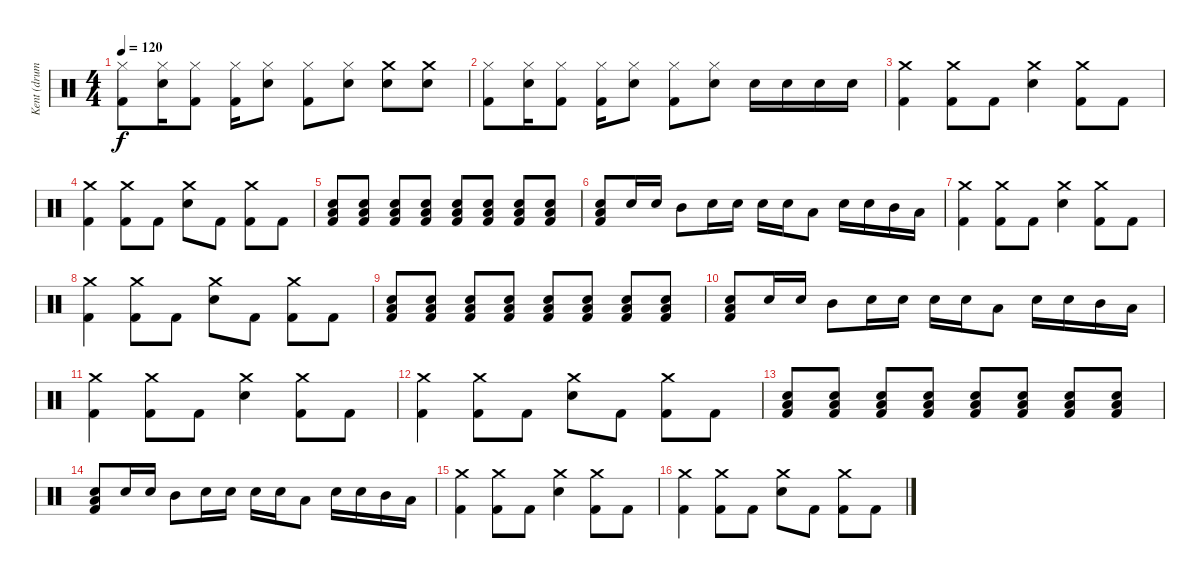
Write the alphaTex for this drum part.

\track ("Kent (drums)" "Kent (drum") {instrument percussion}
\staff {score}
\articulation defaults
\ts (4 4)
\tempo 120
\clef neutral
\ks c
("Hi-Hat (closed)" "Kick (hit) 2").8{dy f} ("Hi-Hat (closed)" "Snare (hit) 2").16 ("Hi-Hat (closed)" "Kick (hit) 2").8 ("Hi-Hat (closed)" "Kick (hit) 2").16 ("Hi-Hat (closed)" "Snare (hit) 2").8 ("Hi-Hat (closed)" "Kick (hit) 2").8 ("Hi-Hat (closed)" "Snare (hit) 2").8 ("Crash medium (hit)" "Snare (hit) 2").8 ("Crash medium (hit)" "Snare (hit) 2").8 |
("Hi-Hat (closed)" "Kick (hit) 2").8 ("Hi-Hat (closed)" "Snare (hit) 2").16 ("Hi-Hat (closed)" "Kick (hit) 2").8 ("Hi-Hat (closed)" "Kick (hit) 2").16 ("Hi-Hat (closed)" "Snare (hit) 2").8 ("Hi-Hat (closed)" "Kick (hit) 2").8 ("Hi-Hat (closed)" "Snare (hit) 2").8 "Snare (hit) 2".16 "Snare (hit) 2".16 "Snare (hit) 2".16 "Snare (hit) 2".16 |
("Crash medium (hit)" "Kick (hit) 2").4 ("Crash medium (hit)" "Kick (hit) 2").8 "Kick (hit) 2".8 ("Crash medium (hit)" "Snare (hit) 2").4 ("Crash medium (hit)" "Kick (hit) 2").8 "Kick (hit) 2".8 |
("Crash medium (hit)" "Kick (hit) 2").4 ("Crash medium (hit)" "Kick (hit) 2").8 "Kick (hit) 2".8 ("Crash medium (hit)" "Snare (hit) 2").8 "Kick (hit) 2".8 ("Crash medium (hit)" "Kick (hit) 2").8 "Kick (hit) 2".8 |
("Low Floor Tom (hit)" "Snare (hit) 2" "Kick (hit) 2").8 ("Low Floor Tom (hit)" "Snare (hit) 2" "Kick (hit) 2").8 ("Low Floor Tom (hit)" "Snare (hit) 2" "Kick (hit) 2").8 ("Low Floor Tom (hit)" "Snare (hit) 2" "Kick (hit) 2").8 ("Low Floor Tom (hit)" "Snare (hit) 2" "Kick (hit) 2").8 ("Low Floor Tom (hit)" "Snare (hit) 2" "Kick (hit) 2").8 ("Low Floor Tom (hit)" "Snare (hit) 2" "Kick (hit) 2").8 ("Low Floor Tom (hit)" "Snare (hit) 2" "Kick (hit) 2").8 |
("Low Floor Tom (hit)" "Snare (hit) 2" "Kick (hit) 2").8 "Snare (hit) 2".16 "Snare (hit) 2".16 "Mid Tom (hit)".8 "Snare (hit) 2".16 "Snare (hit) 2".16 "Snare (hit) 2".16 "Snare (hit) 2".16 "Low Tom (hit)".8 "Snare (hit) 2".16 "Snare (hit) 2".16 "Mid Tom (hit)".16 "Low Tom (hit)".16 |
("Crash medium (hit)" "Kick (hit) 2").4 ("Crash medium (hit)" "Kick (hit) 2").8 "Kick (hit) 2".8 ("Crash medium (hit)" "Snare (hit) 2").4 ("Crash medium (hit)" "Kick (hit) 2").8 "Kick (hit) 2".8 |
("Crash medium (hit)" "Kick (hit) 2").4 ("Crash medium (hit)" "Kick (hit) 2").8 "Kick (hit) 2".8 ("Crash medium (hit)" "Snare (hit) 2").8 "Kick (hit) 2".8 ("Crash medium (hit)" "Kick (hit) 2").8 "Kick (hit) 2".8 |
("Low Floor Tom (hit)" "Snare (hit) 2" "Kick (hit) 2").8 ("Low Floor Tom (hit)" "Snare (hit) 2" "Kick (hit) 2").8 ("Low Floor Tom (hit)" "Snare (hit) 2" "Kick (hit) 2").8 ("Low Floor Tom (hit)" "Snare (hit) 2" "Kick (hit) 2").8 ("Low Floor Tom (hit)" "Snare (hit) 2" "Kick (hit) 2").8 ("Low Floor Tom (hit)" "Snare (hit) 2" "Kick (hit) 2").8 ("Low Floor Tom (hit)" "Snare (hit) 2" "Kick (hit) 2").8 ("Low Floor Tom (hit)" "Snare (hit) 2" "Kick (hit) 2").8 |
("Low Floor Tom (hit)" "Snare (hit) 2" "Kick (hit) 2").8 "Snare (hit) 2".16 "Snare (hit) 2".16 "Mid Tom (hit)".8 "Snare (hit) 2".16 "Snare (hit) 2".16 "Snare (hit) 2".16 "Snare (hit) 2".16 "Low Tom (hit)".8 "Snare (hit) 2".16 "Snare (hit) 2".16 "Mid Tom (hit)".16 "Low Tom (hit)".16 |
("Crash medium (hit)" "Kick (hit) 2").4 ("Crash medium (hit)" "Kick (hit) 2").8 "Kick (hit) 2".8 ("Crash medium (hit)" "Snare (hit) 2").4 ("Crash medium (hit)" "Kick (hit) 2").8 "Kick (hit) 2".8 |
("Crash medium (hit)" "Kick (hit) 2").4 ("Crash medium (hit)" "Kick (hit) 2").8 "Kick (hit) 2".8 ("Crash medium (hit)" "Snare (hit) 2").8 "Kick (hit) 2".8 ("Crash medium (hit)" "Kick (hit) 2").8 "Kick (hit) 2".8 |
("Low Floor Tom (hit)" "Snare (hit) 2" "Kick (hit) 2").8 ("Low Floor Tom (hit)" "Snare (hit) 2" "Kick (hit) 2").8 ("Low Floor Tom (hit)" "Snare (hit) 2" "Kick (hit) 2").8 ("Low Floor Tom (hit)" "Snare (hit) 2" "Kick (hit) 2").8 ("Low Floor Tom (hit)" "Snare (hit) 2" "Kick (hit) 2").8 ("Low Floor Tom (hit)" "Snare (hit) 2" "Kick (hit) 2").8 ("Low Floor Tom (hit)" "Snare (hit) 2" "Kick (hit) 2").8 ("Low Floor Tom (hit)" "Snare (hit) 2" "Kick (hit) 2").8 |
("Low Floor Tom (hit)" "Snare (hit) 2" "Kick (hit) 2").8 "Snare (hit) 2".16 "Snare (hit) 2".16 "Mid Tom (hit)".8 "Snare (hit) 2".16 "Snare (hit) 2".16 "Snare (hit) 2".16 "Snare (hit) 2".16 "Low Tom (hit)".8 "Snare (hit) 2".16 "Snare (hit) 2".16 "Mid Tom (hit)".16 "Low Tom (hit)".16 |
("Crash medium (hit)" "Kick (hit) 2").4 ("Crash medium (hit)" "Kick (hit) 2").8 "Kick (hit) 2".8 ("Crash medium (hit)" "Snare (hit) 2").4 ("Crash medium (hit)" "Kick (hit) 2").8 "Kick (hit) 2".8 |
("Crash medium (hit)" "Kick (hit) 2").4 ("Crash medium (hit)" "Kick (hit) 2").8 "Kick (hit) 2".8 ("Crash medium (hit)" "Snare (hit) 2").8 "Kick (hit) 2".8 ("Crash medium (hit)" "Kick (hit) 2").8 "Kick (hit) 2".8
